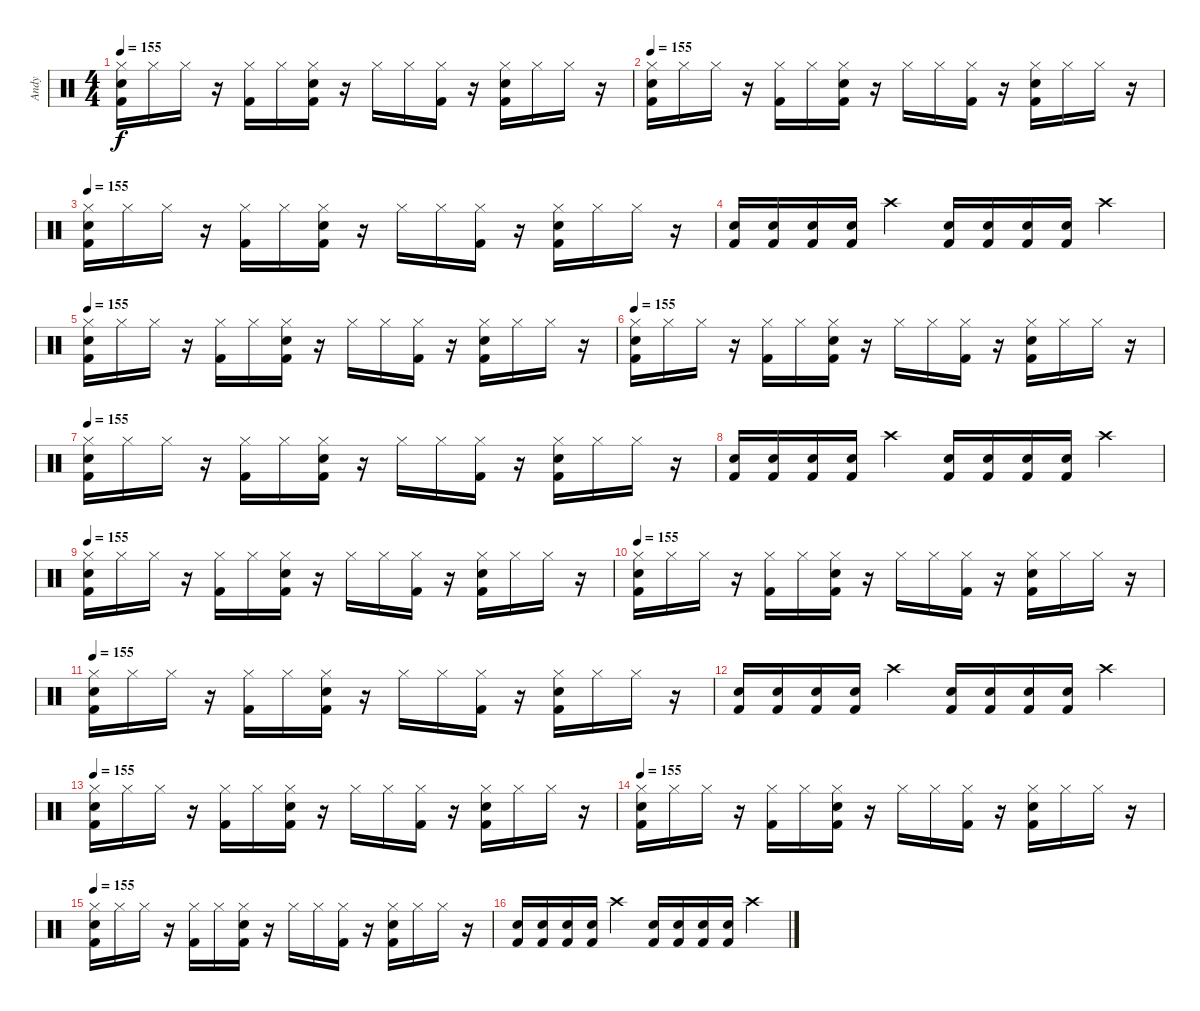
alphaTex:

\track ("Andy" "Andy") {instrument percussion}
\staff {score}
\articulation defaults
\ts (4 4)
\tempo 155
\clef neutral
\ks c
("Hi-Hat (closed)" "Electric Snare (hit)" "Kick (hit) 2").16{dy f} "Hi-Hat (closed)".16 "Hi-Hat (closed)".16 r.16 ("Hi-Hat (closed)" "Kick (hit) 2").16 "Hi-Hat (closed)".16 ("Hi-Hat (closed)" "Electric Snare (hit)" "Kick (hit) 2").16 r.16 "Hi-Hat (closed)".16 "Hi-Hat (closed)".16 ("Hi-Hat (closed)" "Kick (hit) 2").16 r.16 ("Hi-Hat (closed)" "Electric Snare (hit)" "Kick (hit) 2").16 "Hi-Hat (closed)".16 "Hi-Hat (closed)".16 r.16 |
\tempo 155
("Hi-Hat (closed)" "Electric Snare (hit)" "Kick (hit) 2").16 "Hi-Hat (closed)".16 "Hi-Hat (closed)".16 r.16 ("Hi-Hat (closed)" "Kick (hit) 2").16 "Hi-Hat (closed)".16 ("Hi-Hat (closed)" "Electric Snare (hit)" "Kick (hit) 2").16 r.16 "Hi-Hat (closed)".16 "Hi-Hat (closed)".16 ("Hi-Hat (closed)" "Kick (hit) 2").16 r.16 ("Hi-Hat (closed)" "Electric Snare (hit)" "Kick (hit) 2").16 "Hi-Hat (closed)".16 "Hi-Hat (closed)".16 r.16 |
\tempo 155
("Hi-Hat (closed)" "Electric Snare (hit)" "Kick (hit) 2").16 "Hi-Hat (closed)".16 "Hi-Hat (closed)".16 r.16 ("Hi-Hat (closed)" "Kick (hit) 2").16 "Hi-Hat (closed)".16 ("Hi-Hat (closed)" "Electric Snare (hit)" "Kick (hit) 2").16 r.16 "Hi-Hat (closed)".16 "Hi-Hat (closed)".16 ("Hi-Hat (closed)" "Kick (hit) 2").16 r.16 ("Hi-Hat (closed)" "Electric Snare (hit)" "Kick (hit) 2").16 "Hi-Hat (closed)".16 "Hi-Hat (closed)".16 r.16 |
("Electric Snare (hit)" "Kick (hit) 2").16 ("Electric Snare (hit)" "Kick (hit) 2").16 ("Electric Snare (hit)" "Kick (hit) 2").16 ("Electric Snare (hit)" "Kick (hit) 2").16 "Crash high (hit)".4 ("Electric Snare (hit)" "Kick (hit) 2").16 ("Electric Snare (hit)" "Kick (hit) 2").16 ("Electric Snare (hit)" "Kick (hit) 2").16 ("Electric Snare (hit)" "Kick (hit) 2").16 "Crash high (hit)".4 |
\tempo 155
("Hi-Hat (closed)" "Electric Snare (hit)" "Kick (hit) 2").16 "Hi-Hat (closed)".16 "Hi-Hat (closed)".16 r.16 ("Hi-Hat (closed)" "Kick (hit) 2").16 "Hi-Hat (closed)".16 ("Hi-Hat (closed)" "Electric Snare (hit)" "Kick (hit) 2").16 r.16 "Hi-Hat (closed)".16 "Hi-Hat (closed)".16 ("Hi-Hat (closed)" "Kick (hit) 2").16 r.16 ("Hi-Hat (closed)" "Electric Snare (hit)" "Kick (hit) 2").16 "Hi-Hat (closed)".16 "Hi-Hat (closed)".16 r.16 |
\tempo 155
("Hi-Hat (closed)" "Electric Snare (hit)" "Kick (hit) 2").16 "Hi-Hat (closed)".16 "Hi-Hat (closed)".16 r.16 ("Hi-Hat (closed)" "Kick (hit) 2").16 "Hi-Hat (closed)".16 ("Hi-Hat (closed)" "Electric Snare (hit)" "Kick (hit) 2").16 r.16 "Hi-Hat (closed)".16 "Hi-Hat (closed)".16 ("Hi-Hat (closed)" "Kick (hit) 2").16 r.16 ("Hi-Hat (closed)" "Electric Snare (hit)" "Kick (hit) 2").16 "Hi-Hat (closed)".16 "Hi-Hat (closed)".16 r.16 |
\tempo 155
("Hi-Hat (closed)" "Electric Snare (hit)" "Kick (hit) 2").16 "Hi-Hat (closed)".16 "Hi-Hat (closed)".16 r.16 ("Hi-Hat (closed)" "Kick (hit) 2").16 "Hi-Hat (closed)".16 ("Hi-Hat (closed)" "Electric Snare (hit)" "Kick (hit) 2").16 r.16 "Hi-Hat (closed)".16 "Hi-Hat (closed)".16 ("Hi-Hat (closed)" "Kick (hit) 2").16 r.16 ("Hi-Hat (closed)" "Electric Snare (hit)" "Kick (hit) 2").16 "Hi-Hat (closed)".16 "Hi-Hat (closed)".16 r.16 |
("Electric Snare (hit)" "Kick (hit) 2").16 ("Electric Snare (hit)" "Kick (hit) 2").16 ("Electric Snare (hit)" "Kick (hit) 2").16 ("Electric Snare (hit)" "Kick (hit) 2").16 "Crash high (hit)".4 ("Electric Snare (hit)" "Kick (hit) 2").16 ("Electric Snare (hit)" "Kick (hit) 2").16 ("Electric Snare (hit)" "Kick (hit) 2").16 ("Electric Snare (hit)" "Kick (hit) 2").16 "Crash high (hit)".4 |
\tempo 155
("Hi-Hat (closed)" "Electric Snare (hit)" "Kick (hit) 2").16 "Hi-Hat (closed)".16 "Hi-Hat (closed)".16 r.16 ("Hi-Hat (closed)" "Kick (hit) 2").16 "Hi-Hat (closed)".16 ("Hi-Hat (closed)" "Electric Snare (hit)" "Kick (hit) 2").16 r.16 "Hi-Hat (closed)".16 "Hi-Hat (closed)".16 ("Hi-Hat (closed)" "Kick (hit) 2").16 r.16 ("Hi-Hat (closed)" "Electric Snare (hit)" "Kick (hit) 2").16 "Hi-Hat (closed)".16 "Hi-Hat (closed)".16 r.16 |
\tempo 155
("Hi-Hat (closed)" "Electric Snare (hit)" "Kick (hit) 2").16 "Hi-Hat (closed)".16 "Hi-Hat (closed)".16 r.16 ("Hi-Hat (closed)" "Kick (hit) 2").16 "Hi-Hat (closed)".16 ("Hi-Hat (closed)" "Electric Snare (hit)" "Kick (hit) 2").16 r.16 "Hi-Hat (closed)".16 "Hi-Hat (closed)".16 ("Hi-Hat (closed)" "Kick (hit) 2").16 r.16 ("Hi-Hat (closed)" "Electric Snare (hit)" "Kick (hit) 2").16 "Hi-Hat (closed)".16 "Hi-Hat (closed)".16 r.16 |
\tempo 155
("Hi-Hat (closed)" "Electric Snare (hit)" "Kick (hit) 2").16 "Hi-Hat (closed)".16 "Hi-Hat (closed)".16 r.16 ("Hi-Hat (closed)" "Kick (hit) 2").16 "Hi-Hat (closed)".16 ("Hi-Hat (closed)" "Electric Snare (hit)" "Kick (hit) 2").16 r.16 "Hi-Hat (closed)".16 "Hi-Hat (closed)".16 ("Hi-Hat (closed)" "Kick (hit) 2").16 r.16 ("Hi-Hat (closed)" "Electric Snare (hit)" "Kick (hit) 2").16 "Hi-Hat (closed)".16 "Hi-Hat (closed)".16 r.16 |
("Electric Snare (hit)" "Kick (hit) 2").16 ("Electric Snare (hit)" "Kick (hit) 2").16 ("Electric Snare (hit)" "Kick (hit) 2").16 ("Electric Snare (hit)" "Kick (hit) 2").16 "Crash high (hit)".4 ("Electric Snare (hit)" "Kick (hit) 2").16 ("Electric Snare (hit)" "Kick (hit) 2").16 ("Electric Snare (hit)" "Kick (hit) 2").16 ("Electric Snare (hit)" "Kick (hit) 2").16 "Crash high (hit)".4 |
\tempo 155
("Hi-Hat (closed)" "Electric Snare (hit)" "Kick (hit) 2").16 "Hi-Hat (closed)".16 "Hi-Hat (closed)".16 r.16 ("Hi-Hat (closed)" "Kick (hit) 2").16 "Hi-Hat (closed)".16 ("Hi-Hat (closed)" "Electric Snare (hit)" "Kick (hit) 2").16 r.16 "Hi-Hat (closed)".16 "Hi-Hat (closed)".16 ("Hi-Hat (closed)" "Kick (hit) 2").16 r.16 ("Hi-Hat (closed)" "Electric Snare (hit)" "Kick (hit) 2").16 "Hi-Hat (closed)".16 "Hi-Hat (closed)".16 r.16 |
\tempo 155
("Hi-Hat (closed)" "Electric Snare (hit)" "Kick (hit) 2").16 "Hi-Hat (closed)".16 "Hi-Hat (closed)".16 r.16 ("Hi-Hat (closed)" "Kick (hit) 2").16 "Hi-Hat (closed)".16 ("Hi-Hat (closed)" "Electric Snare (hit)" "Kick (hit) 2").16 r.16 "Hi-Hat (closed)".16 "Hi-Hat (closed)".16 ("Hi-Hat (closed)" "Kick (hit) 2").16 r.16 ("Hi-Hat (closed)" "Electric Snare (hit)" "Kick (hit) 2").16 "Hi-Hat (closed)".16 "Hi-Hat (closed)".16 r.16 |
\tempo 155
("Hi-Hat (closed)" "Electric Snare (hit)" "Kick (hit) 2").16 "Hi-Hat (closed)".16 "Hi-Hat (closed)".16 r.16 ("Hi-Hat (closed)" "Kick (hit) 2").16 "Hi-Hat (closed)".16 ("Hi-Hat (closed)" "Electric Snare (hit)" "Kick (hit) 2").16 r.16 "Hi-Hat (closed)".16 "Hi-Hat (closed)".16 ("Hi-Hat (closed)" "Kick (hit) 2").16 r.16 ("Hi-Hat (closed)" "Electric Snare (hit)" "Kick (hit) 2").16 "Hi-Hat (closed)".16 "Hi-Hat (closed)".16 r.16 |
("Electric Snare (hit)" "Kick (hit) 2").16 ("Electric Snare (hit)" "Kick (hit) 2").16 ("Electric Snare (hit)" "Kick (hit) 2").16 ("Electric Snare (hit)" "Kick (hit) 2").16 "Crash high (hit)".4 ("Electric Snare (hit)" "Kick (hit) 2").16 ("Electric Snare (hit)" "Kick (hit) 2").16 ("Electric Snare (hit)" "Kick (hit) 2").16 ("Electric Snare (hit)" "Kick (hit) 2").16 "Crash high (hit)".4
